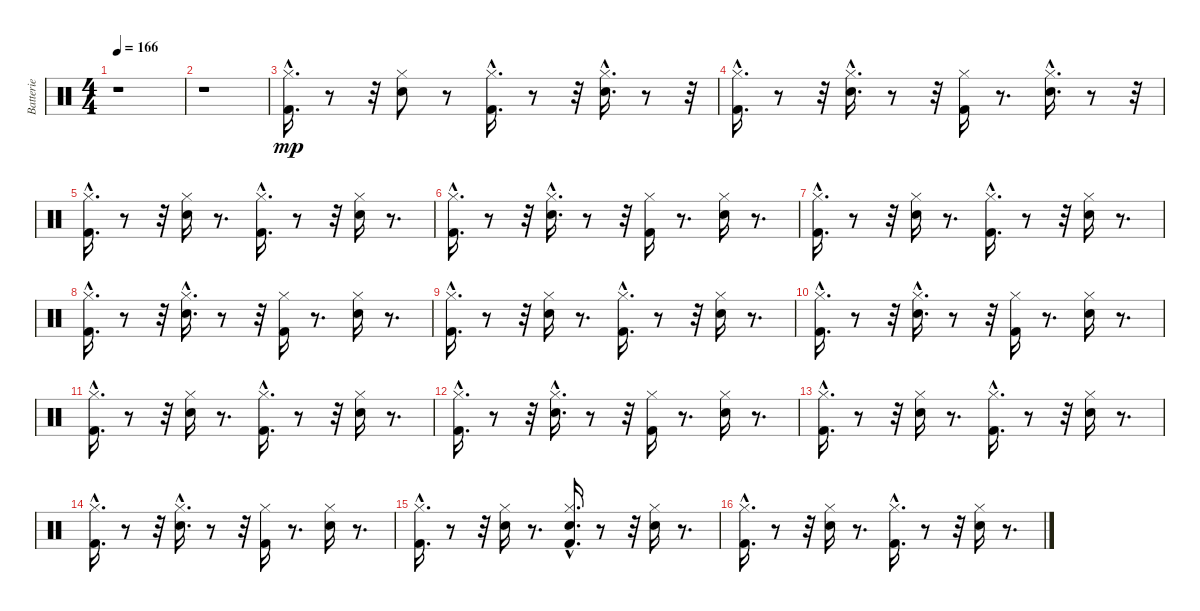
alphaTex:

\track ("Batterie" "Batterie") {instrument percussion}
\staff {score}
\articulation defaults
\ts (4 4)
\tempo 166
\clef neutral
\ks c
r.1{dy mp} |
r.1 |
("Kick (hit) 2"{hac} "Hi-Hat (closed)"{hac}).16{d} r.8 r.32 ("Electric Snare (hit)" "Hi-Hat (closed)").8 r.8 ("Kick (hit) 2"{hac} "Hi-Hat (closed)").16{d} r.8 r.32 ("Electric Snare (hit)"{hac} "Hi-Hat (closed)").16{d} r.8 r.32 |
("Kick (hit) 2"{hac} "Hi-Hat (closed)").16{d} r.8 r.32 ("Electric Snare (hit)" "Hi-Hat (closed)"{hac}).16{d} r.8 r.32 ("Kick (hit) 2" "Hi-Hat (closed)").16 r.8{d} ("Electric Snare (hit)"{hac} "Hi-Hat (closed)").16{d} r.8 r.32 |
("Kick (hit) 2"{hac} "Hi-Hat (closed)"{hac}).16{d} r.8 r.32 ("Electric Snare (hit)" "Hi-Hat (closed)").16 r.8{d} ("Kick (hit) 2"{hac} "Hi-Hat (closed)").16{d} r.8 r.32 ("Electric Snare (hit)" "Hi-Hat (closed)").16 r.8{d} |
("Kick (hit) 2"{hac} "Hi-Hat (closed)").16{d} r.8 r.32 ("Electric Snare (hit)" "Hi-Hat (closed)"{hac}).16{d} r.8 r.32 ("Kick (hit) 2" "Hi-Hat (closed)").16 r.8{d} ("Electric Snare (hit)" "Hi-Hat (closed)").16 r.8{d} |
("Kick (hit) 2"{hac} "Hi-Hat (closed)"{hac}).16{d} r.8 r.32 ("Electric Snare (hit)" "Hi-Hat (closed)").16 r.8{d} ("Kick (hit) 2"{hac} "Hi-Hat (closed)").16{d} r.8 r.32 ("Electric Snare (hit)" "Hi-Hat (closed)").16 r.8{d} |
("Kick (hit) 2"{hac} "Hi-Hat (closed)").16{d} r.8 r.32 ("Electric Snare (hit)" "Hi-Hat (closed)"{hac}).16{d} r.8 r.32 ("Kick (hit) 2" "Hi-Hat (closed)").16 r.8{d} ("Electric Snare (hit)" "Hi-Hat (closed)").16 r.8{d} |
("Kick (hit) 2"{hac} "Hi-Hat (closed)"{hac}).16{d} r.8 r.32 ("Electric Snare (hit)" "Hi-Hat (closed)").16 r.8{d} ("Kick (hit) 2"{hac} "Hi-Hat (closed)").16{d} r.8 r.32 ("Electric Snare (hit)" "Hi-Hat (closed)").16 r.8{d} |
("Kick (hit) 2"{hac} "Hi-Hat (closed)").16{d} r.8 r.32 ("Electric Snare (hit)" "Hi-Hat (closed)"{hac}).16{d} r.8 r.32 ("Kick (hit) 2" "Hi-Hat (closed)").16 r.8{d} ("Electric Snare (hit)" "Hi-Hat (closed)").16 r.8{d} |
("Kick (hit) 2"{hac} "Hi-Hat (closed)"{hac}).16{d} r.8 r.32 ("Electric Snare (hit)" "Hi-Hat (closed)").16 r.8{d} ("Kick (hit) 2"{hac} "Hi-Hat (closed)").16{d} r.8 r.32 ("Electric Snare (hit)" "Hi-Hat (closed)").16 r.8{d} |
("Kick (hit) 2"{hac} "Hi-Hat (closed)").16{d} r.8 r.32 ("Electric Snare (hit)" "Hi-Hat (closed)"{hac}).16{d} r.8 r.32 ("Kick (hit) 2" "Hi-Hat (closed)").16 r.8{d} ("Electric Snare (hit)" "Hi-Hat (closed)").16 r.8{d} |
("Kick (hit) 2"{hac} "Hi-Hat (closed)"{hac}).16{d} r.8 r.32 ("Electric Snare (hit)" "Hi-Hat (closed)").16 r.8{d} ("Kick (hit) 2"{hac} "Hi-Hat (closed)").16{d} r.8 r.32 ("Electric Snare (hit)" "Hi-Hat (closed)").16 r.8{d} |
("Kick (hit) 2"{hac} "Hi-Hat (closed)").16{d} r.8 r.32 ("Electric Snare (hit)" "Hi-Hat (closed)"{hac}).16{d} r.8 r.32 ("Kick (hit) 2" "Hi-Hat (closed)").16 r.8{d} ("Electric Snare (hit)" "Hi-Hat (closed)").16 r.8{d} |
("Kick (hit) 2"{hac} "Hi-Hat (closed)"{hac}).16{d} r.8 r.32 ("Electric Snare (hit)" "Hi-Hat (closed)").16 r.8{d} ("Kick (hit) 2"{hac} "Electric Snare (hit)" "Hi-Hat (closed)").16{d} r.8 r.32 ("Electric Snare (hit)" "Hi-Hat (closed)").16 r.8{d} |
("Kick (hit) 2"{hac} "Hi-Hat (closed)"{hac}).16{d} r.8 r.32 ("Electric Snare (hit)" "Hi-Hat (closed)").16 r.8{d} ("Kick (hit) 2"{hac} "Hi-Hat (closed)").16{d} r.8 r.32 ("Electric Snare (hit)" "Hi-Hat (closed)").16 r.8{d}
